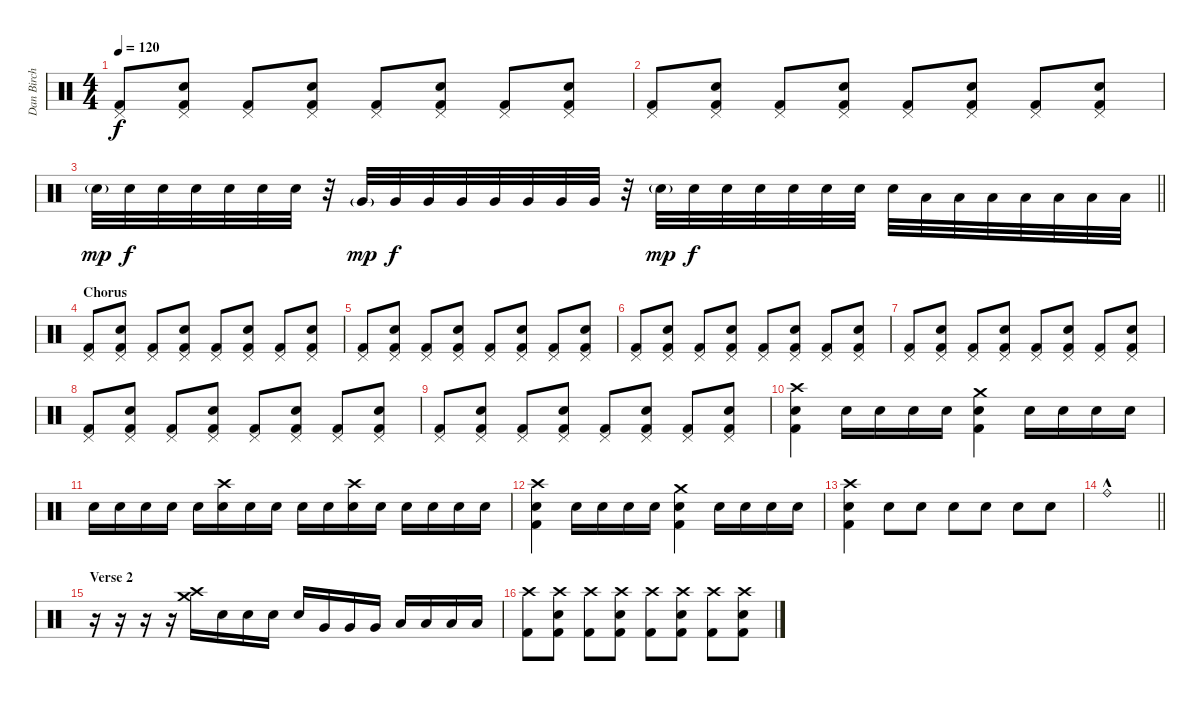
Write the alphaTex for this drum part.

\track ("Dan Birch" "Dan Birch") {instrument percussion}
\staff {score}
\articulation defaults
\ts (4 4)
\tempo 120
\clef neutral
\ks c
("Pedal Hi-Hat (hit)" "Kick (hit) 2").8{dy f} ("Pedal Hi-Hat (hit)" "Snare (hit) 2" "Kick (hit) 2").8 ("Pedal Hi-Hat (hit)" "Kick (hit) 2").8 ("Pedal Hi-Hat (hit)" "Snare (hit) 2" "Kick (hit) 2").8 ("Pedal Hi-Hat (hit)" "Kick (hit) 2").8 ("Pedal Hi-Hat (hit)" "Snare (hit) 2" "Kick (hit) 2").8 ("Pedal Hi-Hat (hit)" "Kick (hit) 2").8 ("Pedal Hi-Hat (hit)" "Snare (hit) 2" "Kick (hit) 2").8 |
("Pedal Hi-Hat (hit)" "Kick (hit) 2").8 ("Pedal Hi-Hat (hit)" "Snare (hit) 2" "Kick (hit) 2").8 ("Pedal Hi-Hat (hit)" "Kick (hit) 2").8 ("Pedal Hi-Hat (hit)" "Snare (hit) 2" "Kick (hit) 2").8 ("Pedal Hi-Hat (hit)" "Kick (hit) 2").8 ("Pedal Hi-Hat (hit)" "Snare (hit) 2" "Kick (hit) 2").8 ("Pedal Hi-Hat (hit)" "Kick (hit) 2").8 ("Pedal Hi-Hat (hit)" "Snare (hit) 2" "Kick (hit) 2").8 |
\barLineRight lightlight "Snare (hit) 2"{g}.32{dy mp} "Snare (hit) 2".32{dy f} "Snare (hit) 2".32 "Snare (hit) 2".32 "Snare (hit) 2".32 "Snare (hit) 2".32 "Snare (hit) 2".32
r.32 "Very Low Tom (hit)"{g}.32{dy mp} "Very Low Tom (hit)".32{dy f} "Very Low Tom (hit)".32 "Very Low Tom (hit)".32 "Very Low Tom (hit)".32 "Very Low Tom (hit)".32 "Very Low Tom (hit)".32 "Very Low Tom (hit)".32 r.32 "Snare (hit) 2"{g}.32{dy mp} "Snare (hit) 2".32{dy f} "Snare (hit) 2".32 "Snare (hit) 2".32 "Snare (hit) 2".32 "Snare (hit) 2".32 "Snare (hit) 2".32 "Snare (hit) 2".32 "Low Tom (hit)".32 "Low Tom (hit)".32 "Low Tom (hit)".32 "Low Tom (hit)".32 "Low Floor Tom (hit)".32 "Low Floor Tom (hit)".32 "Low Floor Tom (hit)".32 |
\section ("" "Chorus")
("Pedal Hi-Hat (hit)" "Kick (hit) 2").8 ("Pedal Hi-Hat (hit)" "Snare (hit) 2" "Kick (hit) 2").8 ("Pedal Hi-Hat (hit)" "Kick (hit) 2").8 ("Pedal Hi-Hat (hit)" "Snare (hit) 2" "Kick (hit) 2").8 ("Pedal Hi-Hat (hit)" "Kick (hit) 2").8 ("Pedal Hi-Hat (hit)" "Snare (hit) 2" "Kick (hit) 2").8 ("Pedal Hi-Hat (hit)" "Kick (hit) 2").8 ("Pedal Hi-Hat (hit)" "Snare (hit) 2" "Kick (hit) 2").8 |
("Pedal Hi-Hat (hit)" "Kick (hit) 2").8 ("Pedal Hi-Hat (hit)" "Snare (hit) 2" "Kick (hit) 2").8 ("Pedal Hi-Hat (hit)" "Kick (hit) 2").8 ("Pedal Hi-Hat (hit)" "Snare (hit) 2" "Kick (hit) 2").8 ("Pedal Hi-Hat (hit)" "Kick (hit) 2").8 ("Pedal Hi-Hat (hit)" "Snare (hit) 2" "Kick (hit) 2").8 ("Pedal Hi-Hat (hit)" "Kick (hit) 2").8 ("Pedal Hi-Hat (hit)" "Snare (hit) 2" "Kick (hit) 2").8 |
("Pedal Hi-Hat (hit)" "Kick (hit) 2").8 ("Pedal Hi-Hat (hit)" "Snare (hit) 2" "Kick (hit) 2").8 ("Pedal Hi-Hat (hit)" "Kick (hit) 2").8 ("Pedal Hi-Hat (hit)" "Snare (hit) 2" "Kick (hit) 2").8 ("Pedal Hi-Hat (hit)" "Kick (hit) 2").8 ("Pedal Hi-Hat (hit)" "Snare (hit) 2" "Kick (hit) 2").8 ("Pedal Hi-Hat (hit)" "Kick (hit) 2").8 ("Pedal Hi-Hat (hit)" "Snare (hit) 2" "Kick (hit) 2").8 |
("Pedal Hi-Hat (hit)" "Kick (hit) 2").8 ("Pedal Hi-Hat (hit)" "Snare (hit) 2" "Kick (hit) 2").8 ("Pedal Hi-Hat (hit)" "Kick (hit) 2").8 ("Pedal Hi-Hat (hit)" "Snare (hit) 2" "Kick (hit) 2").8 ("Pedal Hi-Hat (hit)" "Kick (hit) 2").8 ("Pedal Hi-Hat (hit)" "Snare (hit) 2" "Kick (hit) 2").8 ("Pedal Hi-Hat (hit)" "Kick (hit) 2").8 ("Pedal Hi-Hat (hit)" "Snare (hit) 2" "Kick (hit) 2").8 |
("Pedal Hi-Hat (hit)" "Kick (hit) 2").8 ("Pedal Hi-Hat (hit)" "Snare (hit) 2" "Kick (hit) 2").8 ("Pedal Hi-Hat (hit)" "Kick (hit) 2").8 ("Pedal Hi-Hat (hit)" "Snare (hit) 2" "Kick (hit) 2").8 ("Pedal Hi-Hat (hit)" "Kick (hit) 2").8 ("Pedal Hi-Hat (hit)" "Snare (hit) 2" "Kick (hit) 2").8 ("Pedal Hi-Hat (hit)" "Kick (hit) 2").8 ("Pedal Hi-Hat (hit)" "Snare (hit) 2" "Kick (hit) 2").8 |
("Pedal Hi-Hat (hit)" "Kick (hit) 2").8 ("Pedal Hi-Hat (hit)" "Snare (hit) 2" "Kick (hit) 2").8 ("Pedal Hi-Hat (hit)" "Kick (hit) 2").8 ("Pedal Hi-Hat (hit)" "Snare (hit) 2" "Kick (hit) 2").8 ("Pedal Hi-Hat (hit)" "Kick (hit) 2").8 ("Pedal Hi-Hat (hit)" "Snare (hit) 2" "Kick (hit) 2").8 ("Pedal Hi-Hat (hit)" "Kick (hit) 2").8 ("Pedal Hi-Hat (hit)" "Snare (hit) 2" "Kick (hit) 2").8 |
("Crash high (hit)" "Snare (hit) 2" "Kick (hit) 2").4 "Snare (hit) 2".16 "Snare (hit) 2".16 "Snare (hit) 2".16 "Snare (hit) 2".16 ("Crash medium (hit)" "Snare (hit) 2" "Kick (hit) 2").4 "Snare (hit) 2".16 "Snare (hit) 2".16 "Snare (hit) 2".16 "Snare (hit) 2".16 |
"Snare (hit) 2".16 "Snare (hit) 2".16 "Snare (hit) 2".16 "Snare (hit) 2".16 "Snare (hit) 2".16 ("Crash high (hit)" "Snare (hit) 2").16 "Snare (hit) 2".16 "Snare (hit) 2".16 "Snare (hit) 2".16 "Snare (hit) 2".16 ("Crash high (hit)" "Snare (hit) 2").16 "Snare (hit) 2".16 "Snare (hit) 2".16 "Snare (hit) 2".16 "Snare (hit) 2".16 "Snare (hit) 2".16 |
("Crash high (hit)" "Snare (hit) 2" "Kick (hit) 2").4 "Snare (hit) 2".16 "Snare (hit) 2".16 "Snare (hit) 2".16 "Snare (hit) 2".16 ("Crash medium (hit)" "Snare (hit) 2" "Kick (hit) 2").4 "Snare (hit) 2".16 "Snare (hit) 2".16 "Snare (hit) 2".16 "Snare (hit) 2".16 |
("Crash high (hit)" "Snare (hit) 2" "Kick (hit) 2").4 "Snare (hit) 2".8 "Snare (hit) 2".8 "Snare (hit) 2".8 "Snare (hit) 2".8 "Snare (hit) 2".8 "Snare (hit) 2".8 |
\barLineRight lightlight "Ride (bell)"{hac}.1
|
\section ("" "Verse 2")
r.16 r.16 r.16 r.16 ("Crash high (hit)" "Crash medium (hit)").16 "Snare (hit) 2".16 "Snare (hit) 2".16 "Snare (hit) 2".16 "Snare (hit) 2".16 "Very Low Tom (hit)".16 "Very Low Tom (hit)".16 "Very Low Tom (hit)".16 "Low Tom (hit)".16 "Low Tom (hit)".16 "Low Tom (hit)".16 "Low Floor Tom (hit)".16 |
("Crash high (hit)" "Kick (hit) 2").8 ("Crash high (hit)" "Snare (hit) 2" "Kick (hit) 2").8 ("Crash high (hit)" "Kick (hit) 2").8 ("Crash high (hit)" "Snare (hit) 2" "Kick (hit) 2").8 ("Crash high (hit)" "Kick (hit) 2").8 ("Crash high (hit)" "Snare (hit) 2" "Kick (hit) 2").8 ("Crash high (hit)" "Kick (hit) 2").8 ("Crash high (hit)" "Snare (hit) 2" "Kick (hit) 2").8
